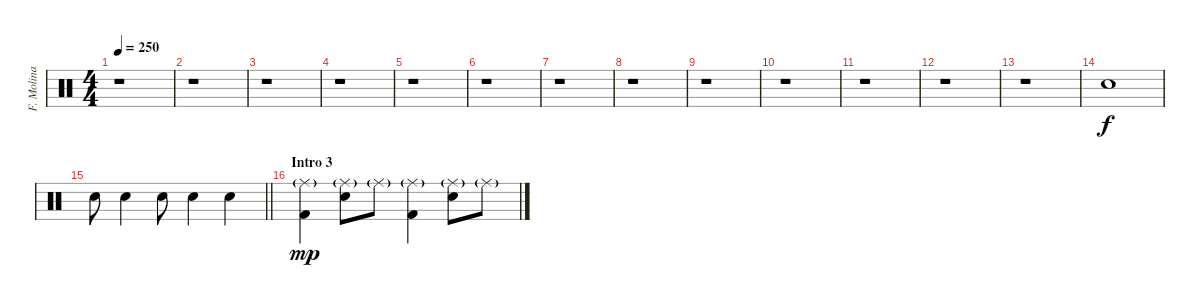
\track ("F. Molina [Batería]" "F. Molina ") {instrument percussion}
\staff {score}
\articulation defaults
\ts (4 4)
\tempo 250
\clef neutral
\ks c
r.1{dy f} |
r.1 |
r.1 |
r.1 |
r.1 |
r.1 |
r.1 |
r.1 |
r.1 |
r.1 |
r.1 |
r.1 |
r.1 |
"Electric Snare (hit)".1 |
\barLineRight lightlight "Electric Snare (hit)".8 "Electric Snare (hit)".4 "Electric Snare (hit)".8 "Electric Snare (hit)".4 "Electric Snare (hit)".4
|
\section ("" "Intro 3")
("Ride (middle)"{g} "Kick (hit) 2").4{dy mp} ("Ride (middle)"{g} "Electric Snare (hit)").8 "Ride (middle)"{g}.8 ("Ride (middle)"{g} "Kick (hit) 2").4 ("Ride (middle)"{g} "Electric Snare (hit)").8 "Ride (middle)"{g}.8
